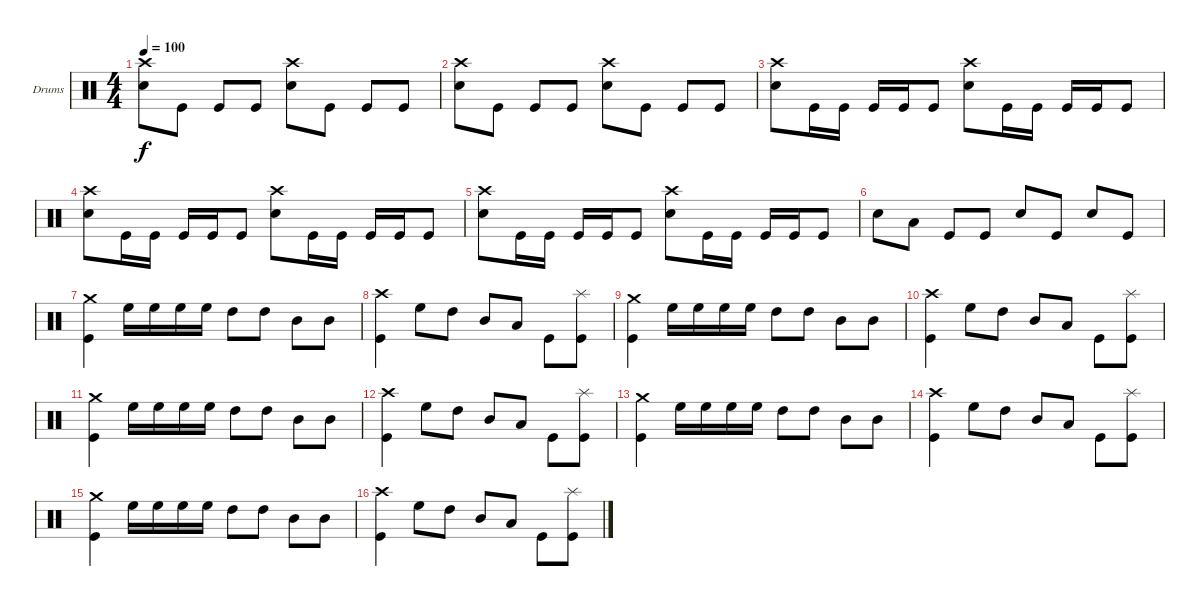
\bracketExtendMode groupsimilarinstruments
\firstSystemTrackNameOrientation horizontal
\otherSystemsTrackNameOrientation horizontal
\track ("Drumkit" "Drums") {instrument percussion}
\staff {score}
\articulation defaults
\ts (4 4)
\tempo 100
\clef neutral
\ks c
("Crash high (hit)" "Snare (hit) 2").8{dy f} "Kick (hit)".8 "Kick (hit)".8 "Kick (hit)".8 ("Crash high (hit)" "Snare (hit) 2").8 "Kick (hit)".8 "Kick (hit)".8 "Kick (hit)".8 |
("Crash high (hit)" "Snare (hit) 2").8 "Kick (hit)".8 "Kick (hit)".8 "Kick (hit)".8 ("Crash high (hit)" "Snare (hit) 2").8 "Kick (hit)".8 "Kick (hit)".8 "Kick (hit)".8 |
("Crash high (hit)" "Snare (hit) 2").8 "Kick (hit)".16 "Kick (hit)".16 "Kick (hit)".16 "Kick (hit)".16 "Kick (hit)".8 ("Crash high (hit)" "Snare (hit) 2").8 "Kick (hit)".16 "Kick (hit)".16 "Kick (hit)".16 "Kick (hit)".16 "Kick (hit)".8 |
("Crash high (hit)" "Snare (hit) 2").8 "Kick (hit)".16 "Kick (hit)".16 "Kick (hit)".16 "Kick (hit)".16 "Kick (hit)".8 ("Crash high (hit)" "Snare (hit) 2").8 "Kick (hit)".16 "Kick (hit)".16 "Kick (hit)".16 "Kick (hit)".16 "Kick (hit)".8 |
("Crash high (hit)" "Snare (hit) 2").8 "Kick (hit)".16 "Kick (hit)".16 "Kick (hit)".16 "Kick (hit)".16 "Kick (hit)".8 ("Crash high (hit)" "Snare (hit) 2").8 "Kick (hit)".16 "Kick (hit)".16 "Kick (hit)".16 "Kick (hit)".16 "Kick (hit)".8 |
"Snare (hit) 2".8 "Low Tom (hit)".8 "Kick (hit)".8 "Kick (hit)".8 "Snare (hit) 2".8 "Kick (hit)".8 "Snare (hit) 2".8 "Kick (hit)".8 |
("Crash medium (hit)" "Kick (hit)").4 "High Floor Tom (hit)".16 "High Floor Tom (hit)".16 "High Floor Tom (hit)".16 "High Floor Tom (hit)".16 "High Tom (hit)".8 "High Tom (hit)".8 "Mid Tom (hit)".8 "Mid Tom (hit)".8 |
("Crash high (hit)" "Kick (hit)").4 "High Floor Tom (hit)".8 "High Tom (hit)".8 "Mid Tom (hit)".8 "Low Tom (hit)".8 "Kick (hit)".8 ("Splash (hit)" "Kick (hit)").8 |
("Crash medium (hit)" "Kick (hit)").4 "High Floor Tom (hit)".16 "High Floor Tom (hit)".16 "High Floor Tom (hit)".16 "High Floor Tom (hit)".16 "High Tom (hit)".8 "High Tom (hit)".8 "Mid Tom (hit)".8 "Mid Tom (hit)".8 |
("Crash high (hit)" "Kick (hit)").4 "High Floor Tom (hit)".8 "High Tom (hit)".8 "Mid Tom (hit)".8 "Low Tom (hit)".8 "Kick (hit)".8 ("Splash (hit)" "Kick (hit)").8 |
("Crash medium (hit)" "Kick (hit)").4 "High Floor Tom (hit)".16 "High Floor Tom (hit)".16 "High Floor Tom (hit)".16 "High Floor Tom (hit)".16 "High Tom (hit)".8 "High Tom (hit)".8 "Mid Tom (hit)".8 "Mid Tom (hit)".8 |
("Crash high (hit)" "Kick (hit)").4 "High Floor Tom (hit)".8 "High Tom (hit)".8 "Mid Tom (hit)".8 "Low Tom (hit)".8 "Kick (hit)".8 ("Splash (hit)" "Kick (hit)").8 |
("Crash medium (hit)" "Kick (hit)").4 "High Floor Tom (hit)".16 "High Floor Tom (hit)".16 "High Floor Tom (hit)".16 "High Floor Tom (hit)".16 "High Tom (hit)".8 "High Tom (hit)".8 "Mid Tom (hit)".8 "Mid Tom (hit)".8 |
("Crash high (hit)" "Kick (hit)").4 "High Floor Tom (hit)".8 "High Tom (hit)".8 "Mid Tom (hit)".8 "Low Tom (hit)".8 "Kick (hit)".8 ("Splash (hit)" "Kick (hit)").8 |
("Crash medium (hit)" "Kick (hit)").4 "High Floor Tom (hit)".16 "High Floor Tom (hit)".16 "High Floor Tom (hit)".16 "High Floor Tom (hit)".16 "High Tom (hit)".8 "High Tom (hit)".8 "Mid Tom (hit)".8 "Mid Tom (hit)".8 |
("Crash high (hit)" "Kick (hit)").4 "High Floor Tom (hit)".8 "High Tom (hit)".8 "Mid Tom (hit)".8 "Low Tom (hit)".8 "Kick (hit)".8 ("Splash (hit)" "Kick (hit)").8
